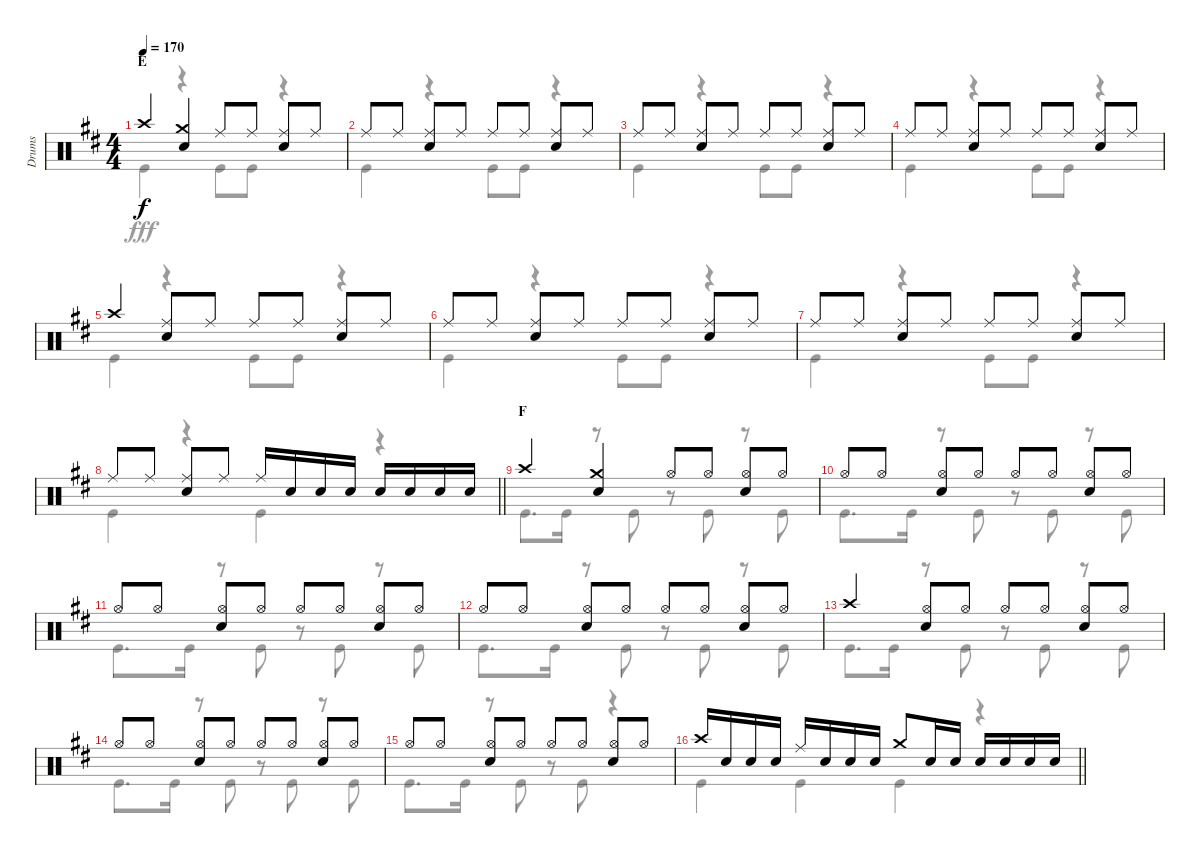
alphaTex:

\track ("Drums" "Drums") {instrument percussion}
\staff {score}
\articulation defaults
\voice
\ts (4 4)
\section ("" "E")
\tempo 170
\clef neutral
\ks d "Crash high (hit)".4{dy f}
("Crash medium (hit)" "Snare (hit) 2").4 "Ride (middle)".8 "Ride (middle)".8 ("Ride (middle)" "Snare (hit) 2").8 "Ride (middle)".8 |
"Ride (middle)".8 "Ride (middle)".8 ("Ride (middle)" "Snare (hit) 2").8 "Ride (middle)".8 "Ride (middle)".8 "Ride (middle)".8 ("Ride (middle)" "Snare (hit) 2").8 "Ride (middle)".8 |
"Ride (middle)".8 "Ride (middle)".8 ("Ride (middle)" "Snare (hit) 2").8 "Ride (middle)".8 "Ride (middle)".8 "Ride (middle)".8 ("Ride (middle)" "Snare (hit) 2").8 "Ride (middle)".8 |
"Ride (middle)".8 "Ride (middle)".8 ("Ride (middle)" "Snare (hit) 2").8 "Ride (middle)".8 "Ride (middle)".8 "Ride (middle)".8 ("Ride (middle)" "Snare (hit) 2").8 "Ride (middle)".8 |
"Crash high (hit)".4 ("Ride (middle)" "Snare (hit) 2").8 "Ride (middle)".8 "Ride (middle)".8 "Ride (middle)".8 ("Ride (middle)" "Snare (hit) 2").8 "Ride (middle)".8 |
"Ride (middle)".8 "Ride (middle)".8 ("Ride (middle)" "Snare (hit) 2").8 "Ride (middle)".8 "Ride (middle)".8 "Ride (middle)".8 ("Ride (middle)" "Snare (hit) 2").8 "Ride (middle)".8 |
"Ride (middle)".8 "Ride (middle)".8 ("Ride (middle)" "Snare (hit) 2").8 "Ride (middle)".8 "Ride (middle)".8 "Ride (middle)".8 ("Ride (middle)" "Snare (hit) 2").8 "Ride (middle)".8 |
\barLineRight lightlight "Ride (middle)".8 "Ride (middle)".8
("Ride (middle)" "Snare (hit) 2").8 "Ride (middle)".8 "Ride (middle)".16 "Snare (hit) 2".16 "Snare (hit) 2".16 "Snare (hit) 2".16 "Snare (hit) 2".16 "Snare (hit) 2".16 "Snare (hit) 2".16 "Snare (hit) 2".16 |
\section ("" "F")
"Crash high (hit)".4 ("Crash medium (hit)" "Snare (hit) 2").4 "Hi-Hat (open)".8 "Hi-Hat (open)".8 ("Hi-Hat (open)" "Snare (hit) 2").8 "Hi-Hat (open)".8 |
"Hi-Hat (open)".8 "Hi-Hat (open)".8 ("Hi-Hat (open)" "Snare (hit) 2").8 "Hi-Hat (open)".8 "Hi-Hat (open)".8 "Hi-Hat (open)".8 ("Hi-Hat (open)" "Snare (hit) 2").8 "Hi-Hat (open)".8 |
"Hi-Hat (open)".8 "Hi-Hat (open)".8 ("Hi-Hat (open)" "Snare (hit) 2").8 "Hi-Hat (open)".8 "Hi-Hat (open)".8 "Hi-Hat (open)".8 ("Hi-Hat (open)" "Snare (hit) 2").8 "Hi-Hat (open)".8 |
"Hi-Hat (open)".8 "Hi-Hat (open)".8 ("Hi-Hat (open)" "Snare (hit) 2").8 "Hi-Hat (open)".8 "Hi-Hat (open)".8 "Hi-Hat (open)".8 ("Hi-Hat (open)" "Snare (hit) 2").8 "Hi-Hat (open)".8 |
"Crash high (hit)".4 ("Hi-Hat (open)" "Snare (hit) 2").8 "Hi-Hat (open)".8 "Hi-Hat (open)".8 "Hi-Hat (open)".8 ("Hi-Hat (open)" "Snare (hit) 2").8 "Hi-Hat (open)".8 |
"Hi-Hat (open)".8 "Hi-Hat (open)".8 ("Hi-Hat (open)" "Snare (hit) 2").8 "Hi-Hat (open)".8 "Hi-Hat (open)".8 "Hi-Hat (open)".8 ("Hi-Hat (open)" "Snare (hit) 2").8 "Hi-Hat (open)".8 |
"Hi-Hat (open)".8 "Hi-Hat (open)".8 ("Hi-Hat (open)" "Snare (hit) 2").8 "Hi-Hat (open)".8 "Hi-Hat (open)".8 "Hi-Hat (open)".8 ("Hi-Hat (open)" "Snare (hit) 2").8 "Hi-Hat (open)".8 |
\barLineRight lightlight "Crash high (hit)".16 "Snare (hit) 2".16 "Snare (hit) 2".16 "Snare (hit) 2".16 "Ride (middle)".16 "Snare (hit) 2".16 "Snare (hit) 2".16 "Snare (hit) 2".16 "Crash medium (hit)".8 "Snare (hit) 2".16 "Snare (hit) 2".16 "Snare (hit) 2".16 "Snare (hit) 2".16 "Snare (hit) 2".16 "Snare (hit) 2".16
\voice
\clef neutral
\ottava regular
\simile none
\ks d "Kick (hit)".4{dy fff}
r.4 "Kick (hit)".8 "Kick (hit)".8 r.4 |
"Kick (hit)".4 r.4 "Kick (hit)".8 "Kick (hit)".8 r.4 |
"Kick (hit)".4 r.4 "Kick (hit)".8 "Kick (hit)".8 r.4 |
"Kick (hit)".4 r.4 "Kick (hit)".8 "Kick (hit)".8 r.4 |
"Kick (hit)".4 r.4 "Kick (hit)".8 "Kick (hit)".8 r.4 |
"Kick (hit)".4 r.4 "Kick (hit)".8 "Kick (hit)".8 r.4 |
"Kick (hit)".4 r.4 "Kick (hit)".8 "Kick (hit)".8 r.4 |
\barLineRight lightlight "Kick (hit)".4
r.4 "Kick (hit)".4 r.4 |
"Kick (hit)".8{d} "Kick (hit)".16 r.8 "Kick (hit)".8 r.8 "Kick (hit)".8 r.8 "Kick (hit)".8 |
"Kick (hit)".8{d} "Kick (hit)".16 r.8 "Kick (hit)".8 r.8 "Kick (hit)".8 r.8 "Kick (hit)".8 |
"Kick (hit)".8{d} "Kick (hit)".16 r.8 "Kick (hit)".8 r.8 "Kick (hit)".8 r.8 "Kick (hit)".8 |
"Kick (hit)".8{d} "Kick (hit)".16 r.8 "Kick (hit)".8 r.8 "Kick (hit)".8 r.8 "Kick (hit)".8 |
"Kick (hit)".8{d} "Kick (hit)".16 r.8 "Kick (hit)".8 r.8 "Kick (hit)".8 r.8 "Kick (hit)".8 |
"Kick (hit)".8{d} "Kick (hit)".16 r.8 "Kick (hit)".8 r.8 "Kick (hit)".8 r.8 "Kick (hit)".8 |
"Kick (hit)".8{d} "Kick (hit)".16 r.8 "Kick (hit)".8 r.8 "Kick (hit)".8 r.4 |
\barLineRight lightlight "Kick (hit)".4 "Kick (hit)".4 "Kick (hit)".4
r.4
